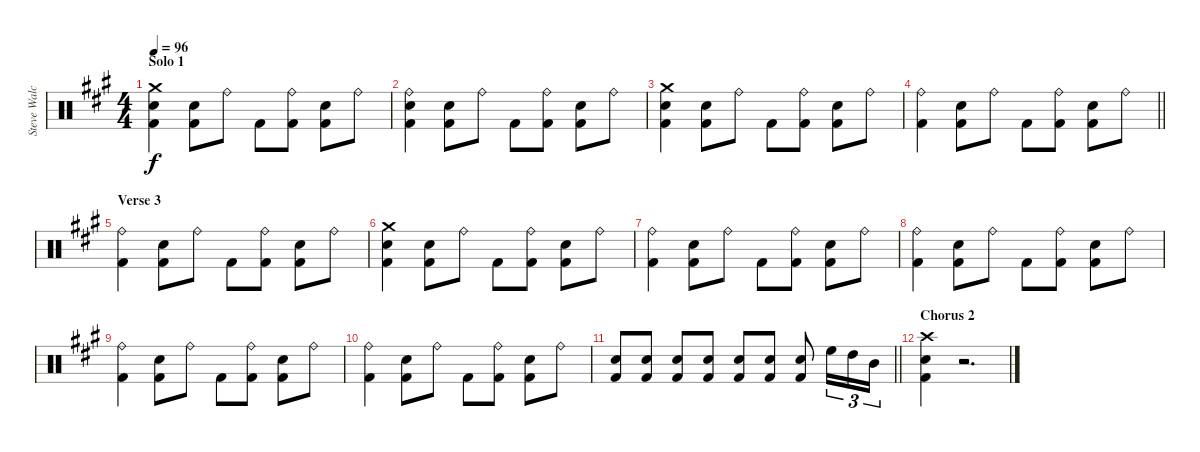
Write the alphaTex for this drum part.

\track ("Steve Walchoz" "Steve Walc") {instrument percussion}
\staff {score}
\articulation defaults
\ts (4 4)
\section ("" "Solo 1")
\tempo 96
\clef neutral
\ks a
("Crash medium (hit)" "Snare (hit) 2" "Kick (hit) 2").4{dy f} ("Snare (hit) 2" "Kick (hit) 2").8 "Ride (bell)".8 "Kick (hit) 2".8 ("Ride (bell)" "Kick (hit) 2").8 ("Snare (hit) 2" "Kick (hit) 2").8 "Ride (bell)".8 |
("Ride (bell)" "Snare (hit) 2" "Kick (hit) 2").4 ("Snare (hit) 2" "Kick (hit) 2").8 "Ride (bell)".8 "Kick (hit) 2".8 ("Ride (bell)" "Kick (hit) 2").8 ("Snare (hit) 2" "Kick (hit) 2").8 "Ride (bell)".8 |
("Crash medium (hit)" "Snare (hit) 2" "Kick (hit) 2").4 ("Snare (hit) 2" "Kick (hit) 2").8 "Ride (bell)".8 "Kick (hit) 2".8 ("Ride (bell)" "Kick (hit) 2").8 ("Snare (hit) 2" "Kick (hit) 2").8 "Ride (bell)".8 |
\barLineRight lightlight
("Ride (bell)" "Kick (hit) 2").4 ("Snare (hit) 2" "Kick (hit) 2").8 "Ride (bell)".8 "Kick (hit) 2".8 ("Ride (bell)" "Kick (hit) 2").8 ("Snare (hit) 2" "Kick (hit) 2").8 "Ride (bell)".8 |
\section ("" "Verse 3")
("Ride (bell)" "Kick (hit) 2").4 ("Snare (hit) 2" "Kick (hit) 2").8 "Ride (bell)".8 "Kick (hit) 2".8 ("Ride (bell)" "Kick (hit) 2").8 ("Snare (hit) 2" "Kick (hit) 2").8 "Ride (bell)".8 |
("Crash medium (hit)" "Snare (hit) 2" "Kick (hit) 2").4 ("Snare (hit) 2" "Kick (hit) 2").8 "Ride (bell)".8 "Kick (hit) 2".8 ("Ride (bell)" "Kick (hit) 2").8 ("Snare (hit) 2" "Kick (hit) 2").8 "Ride (bell)".8 |
("Ride (bell)" "Kick (hit) 2").4 ("Snare (hit) 2" "Kick (hit) 2").8 "Ride (bell)".8 "Kick (hit) 2".8 ("Ride (bell)" "Kick (hit) 2").8 ("Snare (hit) 2" "Kick (hit) 2").8 "Ride (bell)".8 |
("Ride (bell)" "Kick (hit) 2").4 ("Snare (hit) 2" "Kick (hit) 2").8 "Ride (bell)".8 "Kick (hit) 2".8 ("Ride (bell)" "Kick (hit) 2").8 ("Snare (hit) 2" "Kick (hit) 2").8 "Ride (bell)".8 |
("Ride (bell)" "Kick (hit) 2").4 ("Snare (hit) 2" "Kick (hit) 2").8 "Ride (bell)".8 "Kick (hit) 2".8 ("Ride (bell)" "Kick (hit) 2").8 ("Snare (hit) 2" "Kick (hit) 2").8 "Ride (bell)".8 |
("Ride (bell)" "Kick (hit) 2").4 ("Snare (hit) 2" "Kick (hit) 2").8 "Ride (bell)".8 "Kick (hit) 2".8 ("Ride (bell)" "Kick (hit) 2").8 ("Snare (hit) 2" "Kick (hit) 2").8 "Ride (bell)".8 |
\barLineRight lightlight
("Snare (hit) 2" "Kick (hit) 2").8 ("Snare (hit) 2" "Kick (hit) 2").8 ("Snare (hit) 2" "Kick (hit) 2").8 ("Snare (hit) 2" "Kick (hit) 2").8 ("Snare (hit) 2" "Kick (hit) 2").8 ("Snare (hit) 2" "Kick (hit) 2").8 ("Snare (hit) 2" "Kick (hit) 2").8 "High Floor Tom (hit)".16{tu (3 2)} "High Tom (hit)".16{tu (3 2)} "Mid Tom (hit)".16{tu (3 2)} |
\section ("" "Chorus 2")
("Crash high (hit)" "Snare (hit) 2" "Kick (hit) 2").4 r.2{d}
